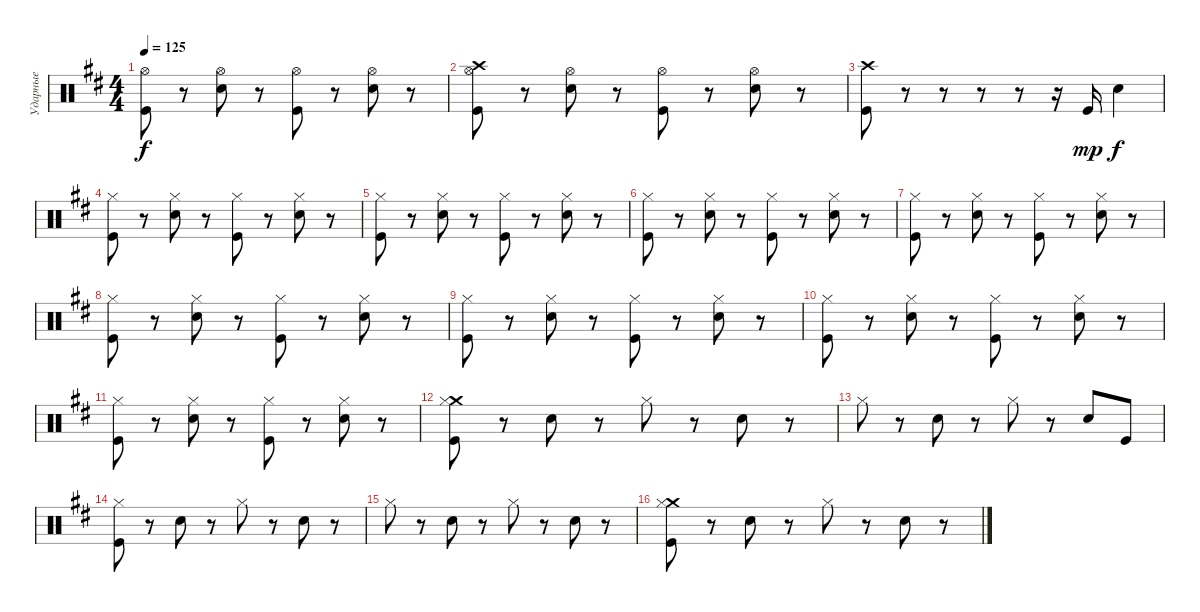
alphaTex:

\track ("Ударные" "Ударные") {instrument percussion}
\staff {score}
\articulation defaults
\ts (4 4)
\tempo 125
\clef neutral
\ks d
("Hi-Hat (open)" "Kick (hit)").8{dy f} r.8 ("Hi-Hat (open)" "Electric Snare (hit)").8 r.8 ("Hi-Hat (open)" "Kick (hit)").8 r.8 ("Hi-Hat (open)" "Electric Snare (hit)").8 r.8 |
("Crash high (hit)" "Hi-Hat (open)" "Kick (hit)").8 r.8 ("Hi-Hat (open)" "Electric Snare (hit)").8 r.8 ("Hi-Hat (open)" "Kick (hit)").8 r.8 ("Hi-Hat (open)" "Electric Snare (hit)").8 r.8 |
("Crash high (hit)" "Kick (hit)").8 r.8 r.8 r.8 r.8 r.16 "Kick (hit)".16{dy mp} "Electric Snare (hit)".4{dy f} |
("Hi-Hat (closed)" "Kick (hit)").8 r.8 ("Hi-Hat (closed)" "Electric Snare (hit)").8 r.8 ("Hi-Hat (closed)" "Kick (hit)").8 r.8 ("Hi-Hat (closed)" "Electric Snare (hit)").8 r.8 |
("Hi-Hat (closed)" "Kick (hit)").8 r.8 ("Hi-Hat (closed)" "Electric Snare (hit)").8 r.8 ("Hi-Hat (closed)" "Kick (hit)").8 r.8 ("Hi-Hat (closed)" "Electric Snare (hit)").8 r.8 |
("Hi-Hat (closed)" "Kick (hit)").8 r.8 ("Hi-Hat (closed)" "Electric Snare (hit)").8 r.8 ("Hi-Hat (closed)" "Kick (hit)").8 r.8 ("Hi-Hat (closed)" "Electric Snare (hit)").8 r.8 |
("Hi-Hat (closed)" "Kick (hit)").8 r.8 ("Hi-Hat (closed)" "Electric Snare (hit)").8 r.8 ("Hi-Hat (closed)" "Kick (hit)").8 r.8 ("Hi-Hat (closed)" "Electric Snare (hit)").8 r.8 |
("Hi-Hat (closed)" "Kick (hit)").8 r.8 ("Hi-Hat (closed)" "Electric Snare (hit)").8 r.8 ("Hi-Hat (closed)" "Kick (hit)").8 r.8 ("Hi-Hat (closed)" "Electric Snare (hit)").8 r.8 |
("Hi-Hat (closed)" "Kick (hit)").8 r.8 ("Hi-Hat (closed)" "Electric Snare (hit)").8 r.8 ("Hi-Hat (closed)" "Kick (hit)").8 r.8 ("Hi-Hat (closed)" "Electric Snare (hit)").8 r.8 |
("Hi-Hat (closed)" "Kick (hit)").8 r.8 ("Hi-Hat (closed)" "Electric Snare (hit)").8 r.8 ("Hi-Hat (closed)" "Kick (hit)").8 r.8 ("Hi-Hat (closed)" "Electric Snare (hit)").8 r.8 |
("Hi-Hat (closed)" "Kick (hit)").8 r.8 ("Hi-Hat (closed)" "Electric Snare (hit)").8 r.8 ("Hi-Hat (closed)" "Kick (hit)").8 r.8 ("Hi-Hat (closed)" "Electric Snare (hit)").8 r.8 |
("Crash medium (hit)" "Hi-Hat (closed)" "Kick (hit)").8 r.8 "Electric Snare (hit)".8 r.8 "Hi-Hat (closed)".8 r.8 "Electric Snare (hit)".8 r.8 |
"Hi-Hat (closed)".8 r.8 "Electric Snare (hit)".8 r.8 "Hi-Hat (closed)".8 r.8 "Electric Snare (hit)".8 "Kick (hit)".8 |
("Hi-Hat (closed)" "Kick (hit)").8 r.8 "Electric Snare (hit)".8 r.8 "Hi-Hat (closed)".8 r.8 "Electric Snare (hit)".8 r.8 |
"Hi-Hat (closed)".8 r.8 "Electric Snare (hit)".8 r.8 "Hi-Hat (closed)".8 r.8 "Electric Snare (hit)".8 r.8 |
("Crash medium (hit)" "Hi-Hat (closed)" "Kick (hit)").8 r.8 "Electric Snare (hit)".8 r.8 "Hi-Hat (closed)".8 r.8 "Electric Snare (hit)".8 r.8
